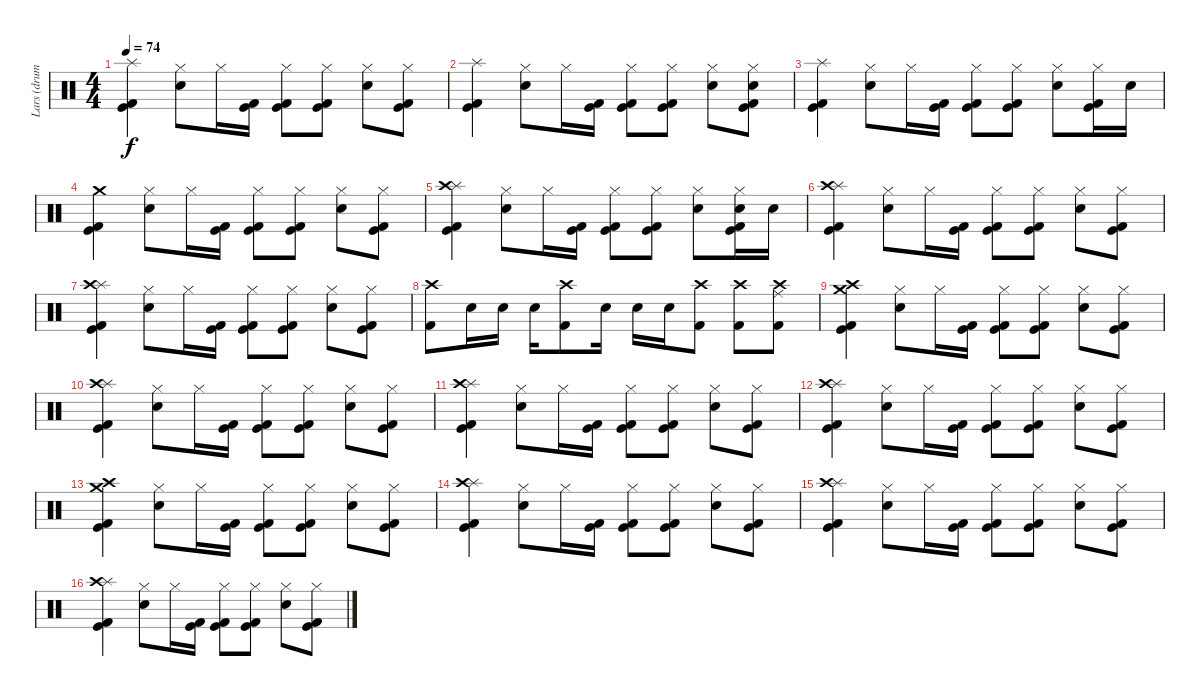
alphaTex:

\track ("Lars (drums)" "Lars (drum") {instrument percussion}
\staff {score}
\articulation defaults
\ts (4 4)
\tempo 74
\clef neutral
\ks c
("Splash (hit)" "Kick (hit) 2" "Kick (hit)").4{dy f} ("Hi-Hat (closed)" "Electric Snare (hit)").8 "Hi-Hat (closed)".16 ("Kick (hit) 2" "Kick (hit)").16 ("Hi-Hat (closed)" "Kick (hit) 2" "Kick (hit)").8 ("Hi-Hat (closed)" "Kick (hit)" "Kick (hit) 2").8 ("Hi-Hat (closed)" "Electric Snare (hit)").8 ("Hi-Hat (closed)" "Kick (hit) 2" "Kick (hit)").8 |
("Splash (hit)" "Kick (hit) 2" "Kick (hit)").4 ("Hi-Hat (closed)" "Electric Snare (hit)").8 "Hi-Hat (closed)".16 ("Kick (hit) 2" "Kick (hit)").16 ("Hi-Hat (closed)" "Kick (hit) 2" "Kick (hit)").8 ("Hi-Hat (closed)" "Kick (hit)" "Kick (hit) 2").8 ("Hi-Hat (closed)" "Electric Snare (hit)").8 ("Hi-Hat (closed)" "Electric Snare (hit)" "Kick (hit) 2" "Kick (hit)").8 |
("Splash (hit)" "Kick (hit) 2" "Kick (hit)").4 ("Hi-Hat (closed)" "Electric Snare (hit)").8 "Hi-Hat (closed)".16 ("Kick (hit) 2" "Kick (hit)").16 ("Hi-Hat (closed)" "Kick (hit) 2" "Kick (hit)").8 ("Hi-Hat (closed)" "Kick (hit)" "Kick (hit) 2").8 ("Hi-Hat (closed)" "Electric Snare (hit)").8 ("Hi-Hat (closed)" "Kick (hit) 2" "Kick (hit)").16 "Electric Snare (hit)".16 |
("Crash medium (hit)" "Kick (hit) 2" "Kick (hit)").4 ("Hi-Hat (closed)" "Electric Snare (hit)").8 "Hi-Hat (closed)".16 ("Kick (hit) 2" "Kick (hit)").16 ("Hi-Hat (closed)" "Kick (hit) 2" "Kick (hit)").8 ("Hi-Hat (closed)" "Kick (hit)" "Kick (hit) 2").8 ("Hi-Hat (closed)" "Electric Snare (hit)").8 ("Hi-Hat (closed)" "Kick (hit) 2" "Kick (hit)").8 |
("Splash (hit)" "Crash high (hit)" "Kick (hit) 2" "Kick (hit)").4 ("Hi-Hat (closed)" "Electric Snare (hit)").8 "Hi-Hat (closed)".16 ("Kick (hit) 2" "Kick (hit)").16 ("Hi-Hat (closed)" "Kick (hit) 2" "Kick (hit)").8 ("Hi-Hat (closed)" "Kick (hit)" "Kick (hit) 2").8 ("Hi-Hat (closed)" "Electric Snare (hit)").8 ("Hi-Hat (closed)" "Electric Snare (hit)" "Kick (hit) 2" "Kick (hit)").16 "Electric Snare (hit)".16 |
("Splash (hit)" "Crash high (hit)" "Kick (hit) 2" "Kick (hit)").4 ("Hi-Hat (closed)" "Electric Snare (hit)").8 "Hi-Hat (closed)".16 ("Kick (hit) 2" "Kick (hit)").16 ("Hi-Hat (closed)" "Kick (hit) 2" "Kick (hit)").8 ("Hi-Hat (closed)" "Kick (hit)" "Kick (hit) 2").8 ("Hi-Hat (closed)" "Electric Snare (hit)").8 ("Hi-Hat (closed)" "Kick (hit) 2" "Kick (hit)").8 |
("Splash (hit)" "Crash high (hit)" "Kick (hit) 2" "Kick (hit)").4 ("Hi-Hat (closed)" "Electric Snare (hit)").8 "Hi-Hat (closed)".16 ("Kick (hit) 2" "Kick (hit)").16 ("Hi-Hat (closed)" "Kick (hit) 2" "Kick (hit)").8 ("Hi-Hat (closed)" "Kick (hit)" "Kick (hit) 2").8 ("Hi-Hat (closed)" "Electric Snare (hit)").8 ("Hi-Hat (closed)" "Kick (hit) 2" "Kick (hit)").8 |
("Crash high (hit)" "Kick (hit) 2").8 "Snare (hit) 2".16 "Snare (hit) 2".16 "Snare (hit) 2".16 ("Crash high (hit)" "Kick (hit) 2").8 "Snare (hit) 2".16 "Snare (hit) 2".16 "Snare (hit) 2".16 ("Crash high (hit)" "Kick (hit) 2").8 ("Crash high (hit)" "Kick (hit) 2").8 ("Ride (middle)" "Crash high (hit)" "Kick (hit) 2").8 |
("Crash medium (hit)" "Crash high (hit)" "Kick (hit) 2" "Kick (hit)").4 ("Hi-Hat (closed)" "Electric Snare (hit)").8 "Hi-Hat (closed)".16 ("Kick (hit) 2" "Kick (hit)").16 ("Hi-Hat (closed)" "Kick (hit) 2" "Kick (hit)").8 ("Hi-Hat (closed)" "Kick (hit)" "Kick (hit) 2").8 ("Hi-Hat (closed)" "Electric Snare (hit)").8 ("Hi-Hat (closed)" "Kick (hit) 2" "Kick (hit)").8 |
("Splash (hit)" "Crash high (hit)" "Kick (hit) 2" "Kick (hit)").4 ("Hi-Hat (closed)" "Electric Snare (hit)").8 "Hi-Hat (closed)".16 ("Kick (hit) 2" "Kick (hit)").16 ("Hi-Hat (closed)" "Kick (hit) 2" "Kick (hit)").8 ("Hi-Hat (closed)" "Kick (hit)" "Kick (hit) 2").8 ("Hi-Hat (closed)" "Electric Snare (hit)").8 ("Hi-Hat (closed)" "Kick (hit) 2" "Kick (hit)").8 |
("Splash (hit)" "Crash high (hit)" "Kick (hit) 2" "Kick (hit)").4 ("Hi-Hat (closed)" "Electric Snare (hit)").8 "Hi-Hat (closed)".16 ("Kick (hit) 2" "Kick (hit)").16 ("Hi-Hat (closed)" "Kick (hit) 2" "Kick (hit)").8 ("Hi-Hat (closed)" "Kick (hit)" "Kick (hit) 2").8 ("Hi-Hat (closed)" "Electric Snare (hit)").8 ("Hi-Hat (closed)" "Kick (hit) 2" "Kick (hit)").8 |
("Splash (hit)" "Crash high (hit)" "Kick (hit) 2" "Kick (hit)").4 ("Hi-Hat (closed)" "Electric Snare (hit)").8 "Hi-Hat (closed)".16 ("Kick (hit) 2" "Kick (hit)").16 ("Hi-Hat (closed)" "Kick (hit) 2" "Kick (hit)").8 ("Hi-Hat (closed)" "Kick (hit)" "Kick (hit) 2").8 ("Hi-Hat (closed)" "Electric Snare (hit)").8 ("Hi-Hat (closed)" "Kick (hit) 2" "Kick (hit)").8 |
("Crash medium (hit)" "Crash high (hit)" "Kick (hit) 2" "Kick (hit)").4 ("Hi-Hat (closed)" "Electric Snare (hit)").8 "Hi-Hat (closed)".16 ("Kick (hit) 2" "Kick (hit)").16 ("Hi-Hat (closed)" "Kick (hit) 2" "Kick (hit)").8 ("Hi-Hat (closed)" "Kick (hit)" "Kick (hit) 2").8 ("Hi-Hat (closed)" "Electric Snare (hit)").8 ("Hi-Hat (closed)" "Kick (hit) 2" "Kick (hit)").8 |
("Splash (hit)" "Crash high (hit)" "Kick (hit) 2" "Kick (hit)").4 ("Hi-Hat (closed)" "Electric Snare (hit)").8 "Hi-Hat (closed)".16 ("Kick (hit) 2" "Kick (hit)").16 ("Hi-Hat (closed)" "Kick (hit) 2" "Kick (hit)").8 ("Hi-Hat (closed)" "Kick (hit)" "Kick (hit) 2").8 ("Hi-Hat (closed)" "Electric Snare (hit)").8 ("Hi-Hat (closed)" "Kick (hit) 2" "Kick (hit)").8 |
("Splash (hit)" "Crash high (hit)" "Kick (hit) 2" "Kick (hit)").4 ("Hi-Hat (closed)" "Electric Snare (hit)").8 "Hi-Hat (closed)".16 ("Kick (hit) 2" "Kick (hit)").16 ("Hi-Hat (closed)" "Kick (hit) 2" "Kick (hit)").8 ("Hi-Hat (closed)" "Kick (hit)" "Kick (hit) 2").8 ("Hi-Hat (closed)" "Electric Snare (hit)").8 ("Hi-Hat (closed)" "Kick (hit) 2" "Kick (hit)").8 |
("Splash (hit)" "Crash high (hit)" "Kick (hit) 2" "Kick (hit)").4 ("Hi-Hat (closed)" "Electric Snare (hit)").8 "Hi-Hat (closed)".16 ("Kick (hit) 2" "Kick (hit)").16 ("Hi-Hat (closed)" "Kick (hit) 2" "Kick (hit)").8 ("Hi-Hat (closed)" "Kick (hit)" "Kick (hit) 2").8 ("Hi-Hat (closed)" "Electric Snare (hit)").8 ("Hi-Hat (closed)" "Kick (hit) 2" "Kick (hit)").8
